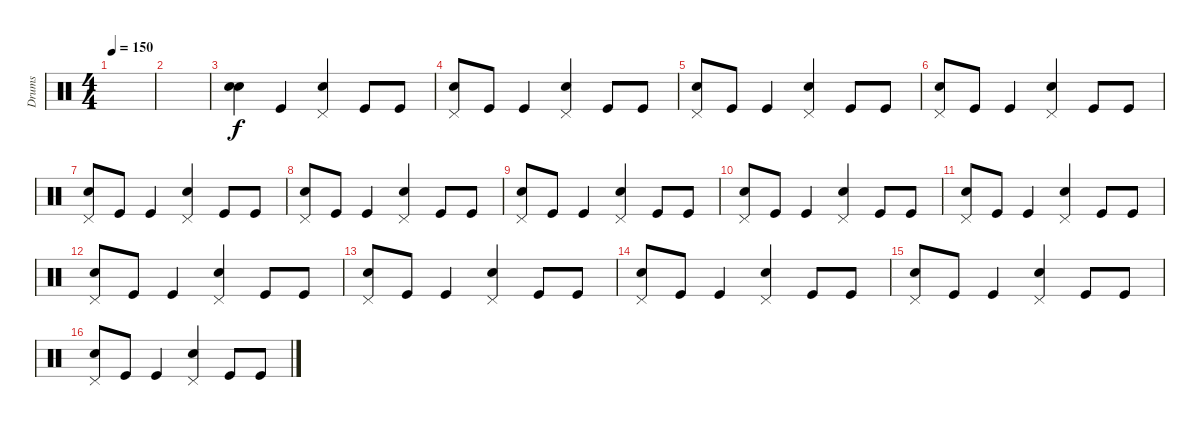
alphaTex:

\track ("Drums" "Drums") {instrument percussion}
\staff {score}
\articulation defaults
\ts (4 4)
\tempo 150
\clef neutral
\ks c
|
|
("Snare (hit) 2" "Electric Snare (hit)").4 "Kick (hit)".4 ("Snare (hit) 2" "Pedal Hi-Hat (hit)").4 "Kick (hit)".8 "Kick (hit)".8 |
("Snare (hit) 2" "Pedal Hi-Hat (hit)").8 "Kick (hit)".8 "Kick (hit)".4 ("Snare (hit) 2" "Pedal Hi-Hat (hit)").4 "Kick (hit)".8 "Kick (hit)".8 |
("Snare (hit) 2" "Pedal Hi-Hat (hit)").8 "Kick (hit)".8 "Kick (hit)".4 ("Snare (hit) 2" "Pedal Hi-Hat (hit)").4 "Kick (hit)".8 "Kick (hit)".8 |
("Snare (hit) 2" "Pedal Hi-Hat (hit)").8 "Kick (hit)".8 "Kick (hit)".4 ("Snare (hit) 2" "Pedal Hi-Hat (hit)").4 "Kick (hit)".8 "Kick (hit)".8 |
("Snare (hit) 2" "Pedal Hi-Hat (hit)").8 "Kick (hit)".8 "Kick (hit)".4 ("Snare (hit) 2" "Pedal Hi-Hat (hit)").4 "Kick (hit)".8 "Kick (hit)".8 |
("Snare (hit) 2" "Pedal Hi-Hat (hit)").8 "Kick (hit)".8 "Kick (hit)".4 ("Snare (hit) 2" "Pedal Hi-Hat (hit)").4 "Kick (hit)".8 "Kick (hit)".8 |
("Snare (hit) 2" "Pedal Hi-Hat (hit)").8 "Kick (hit)".8 "Kick (hit)".4 ("Snare (hit) 2" "Pedal Hi-Hat (hit)").4 "Kick (hit)".8 "Kick (hit)".8 |
("Snare (hit) 2" "Pedal Hi-Hat (hit)").8 "Kick (hit)".8 "Kick (hit)".4 ("Snare (hit) 2" "Pedal Hi-Hat (hit)").4 "Kick (hit)".8 "Kick (hit)".8 |
("Snare (hit) 2" "Pedal Hi-Hat (hit)").8 "Kick (hit)".8 "Kick (hit)".4 ("Snare (hit) 2" "Pedal Hi-Hat (hit)").4 "Kick (hit)".8 "Kick (hit)".8 |
("Snare (hit) 2" "Pedal Hi-Hat (hit)").8 "Kick (hit)".8 "Kick (hit)".4 ("Snare (hit) 2" "Pedal Hi-Hat (hit)").4 "Kick (hit)".8 "Kick (hit)".8 |
("Snare (hit) 2" "Pedal Hi-Hat (hit)").8 "Kick (hit)".8 "Kick (hit)".4 ("Snare (hit) 2" "Pedal Hi-Hat (hit)").4 "Kick (hit)".8 "Kick (hit)".8 |
("Snare (hit) 2" "Pedal Hi-Hat (hit)").8 "Kick (hit)".8 "Kick (hit)".4 ("Snare (hit) 2" "Pedal Hi-Hat (hit)").4 "Kick (hit)".8 "Kick (hit)".8 |
("Snare (hit) 2" "Pedal Hi-Hat (hit)").8 "Kick (hit)".8 "Kick (hit)".4 ("Snare (hit) 2" "Pedal Hi-Hat (hit)").4 "Kick (hit)".8 "Kick (hit)".8 |
("Snare (hit) 2" "Pedal Hi-Hat (hit)").8 "Kick (hit)".8 "Kick (hit)".4 ("Snare (hit) 2" "Pedal Hi-Hat (hit)").4 "Kick (hit)".8 "Kick (hit)".8
